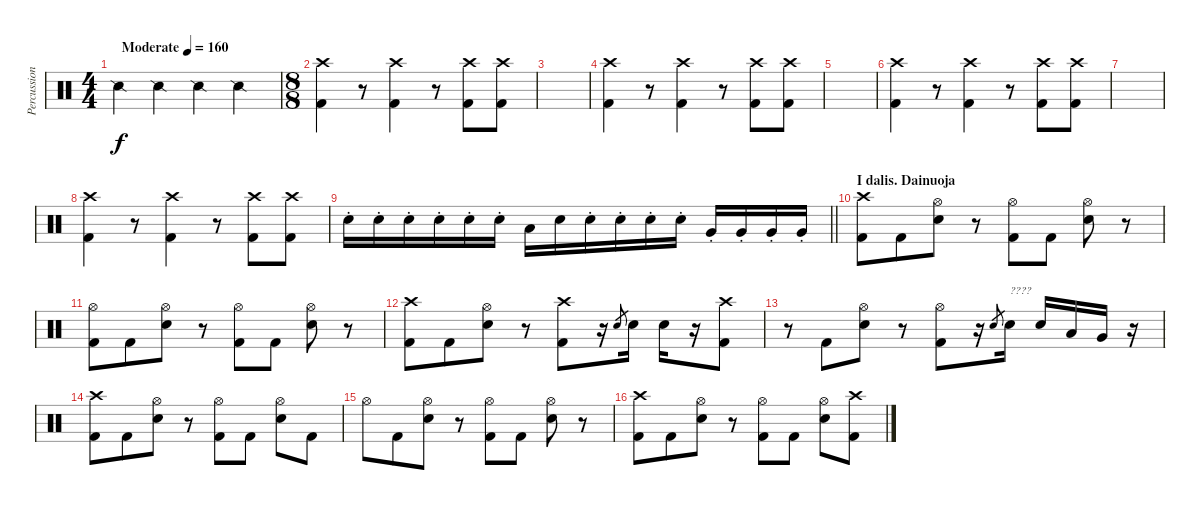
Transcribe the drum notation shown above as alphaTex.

\track ("Percussion" "Percussion") {instrument percussion}
\staff {score}
\articulation defaults
\ts (4 4)
\tempo (160 "Moderate")
\clef neutral
\ks c "Snare (side stick) 2".4{dy f} "Snare (side stick) 2".4 "Snare (side stick) 2".4 "Snare (side stick) 2".4
|
\ts (8 8)
("Crash high (hit)" "Kick (hit) 2").4 r.8 ("Crash high (hit)" "Kick (hit) 2").4 r.8 ("Crash high (hit)" "Kick (hit) 2").8 ("Crash high (hit)" "Kick (hit) 2").8 |
|
("Crash high (hit)" "Kick (hit) 2").4 r.8 ("Crash high (hit)" "Kick (hit) 2").4 r.8 ("Crash high (hit)" "Kick (hit) 2").8 ("Crash high (hit)" "Kick (hit) 2").8 |
|
("Crash high (hit)" "Kick (hit) 2").4 r.8 ("Crash high (hit)" "Kick (hit) 2").4 r.8 ("Crash high (hit)" "Kick (hit) 2").8 ("Crash high (hit)" "Kick (hit) 2").8 |
|
("Crash high (hit)" "Kick (hit) 2").4 r.8 ("Crash high (hit)" "Kick (hit) 2").4 r.8 ("Crash high (hit)" "Kick (hit) 2").8 ("Crash high (hit)" "Kick (hit) 2").8 |
\barLineRight lightlight "Snare (hit) 2"{st}.16 "Snare (hit) 2"{st}.16 "Snare (hit) 2"{st}.16 "Snare (hit) 2"{st}.16 "Snare (hit) 2"{st}.16 "Snare (hit) 2"{st}.16 "Low Tom (hit)".16 "Snare (hit) 2".16 "Snare (hit) 2"{st}.16 "Snare (hit) 2"{st}.16 "Snare (hit) 2"{st}.16 "Snare (hit) 2"{st}.16 "Very Low Tom (hit)"{st}.16 "Very Low Tom (hit)"{st}.16 "Very Low Tom (hit)"{st}.16 "Very Low Tom (hit)"{st}.16
|
\section ("" "I dalis. Dainuoja")
("Crash high (hit)" "Kick (hit) 2").8 "Kick (hit) 2".8 ("Hi-Hat (open)" "Snare (hit) 2").8 r.8 ("Hi-Hat (open)" "Kick (hit) 2").8 "Kick (hit) 2".8 ("Hi-Hat (open)" "Snare (hit) 2").8 r.8 |
("Hi-Hat (open)" "Kick (hit) 2").8 "Kick (hit) 2".8 ("Hi-Hat (open)" "Snare (hit) 2").8 r.8 ("Hi-Hat (open)" "Kick (hit) 2").8 "Kick (hit) 2".8 ("Hi-Hat (open)" "Snare (hit) 2").8 r.8 |
("Crash high (hit)" "Kick (hit) 2").8 "Kick (hit) 2".8 ("Hi-Hat (open)" "Snare (hit) 2").8 r.8 ("Crash high (hit)" "Kick (hit) 2").8 r.16 "Snare (hit) 2".8{gr} "Snare (hit) 2".16 "Snare (hit) 2".16 r.16 ("Crash high (hit)" "Kick (hit) 2").8 |
r.8 "Kick (hit) 2".8 ("Hi-Hat (open)" "Snare (hit) 2").8 r.8 ("Hi-Hat (open)" "Kick (hit) 2").8 r.16 "Snare (hit) 2".8{gr} "Snare (hit) 2".16{txt "????"} "Snare (hit) 2".16 "Low Tom (hit)".16 "Very Low Tom (hit)".16 r.16 |
("Crash high (hit)" "Kick (hit) 2").8 "Kick (hit) 2".8 ("Hi-Hat (open)" "Snare (hit) 2").8 r.8 ("Hi-Hat (open)" "Kick (hit) 2").8 "Kick (hit) 2".8 ("Hi-Hat (open)" "Snare (hit) 2").8 "Kick (hit) 2".8 |
"Hi-Hat (open)".8 "Kick (hit) 2".8 ("Hi-Hat (open)" "Snare (hit) 2").8 r.8 ("Hi-Hat (open)" "Kick (hit) 2").8 "Kick (hit) 2".8 ("Hi-Hat (open)" "Snare (hit) 2").8 r.8 |
("Crash high (hit)" "Kick (hit) 2").8 "Kick (hit) 2".8 ("Hi-Hat (open)" "Snare (hit) 2").8 r.8 ("Hi-Hat (open)" "Kick (hit) 2").8 "Kick (hit) 2".8 ("Hi-Hat (open)" "Snare (hit) 2").8 ("Crash high (hit)" "Kick (hit) 2").8
